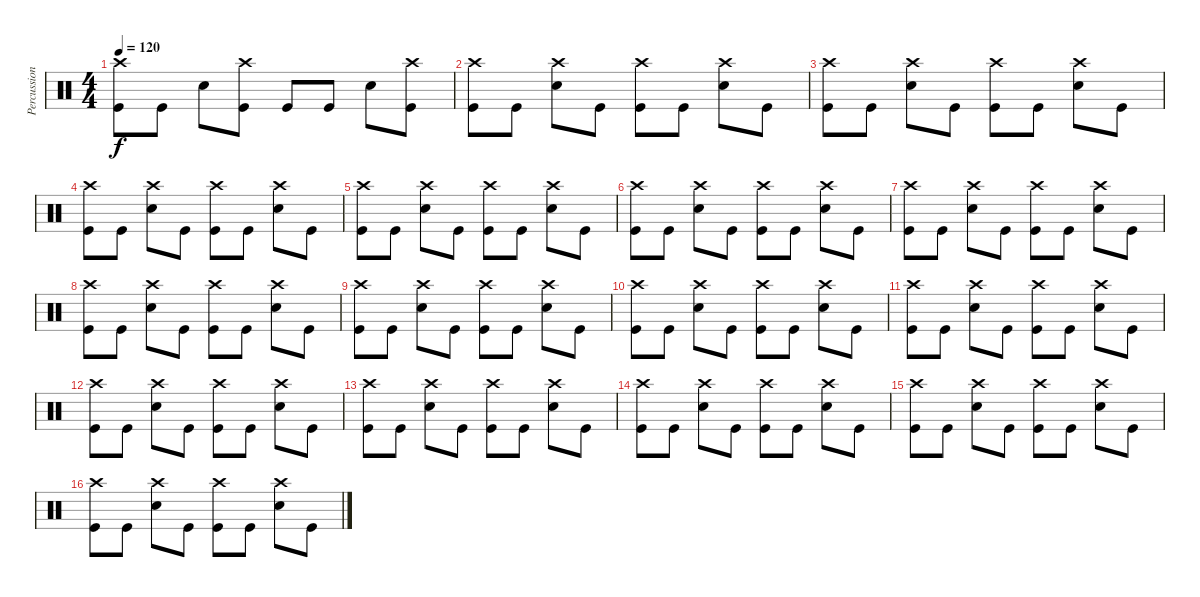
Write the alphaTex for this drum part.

\track ("Percussion" "Percussion") {instrument percussion}
\staff {score}
\articulation defaults
\ts (4 4)
\tempo 120
\clef neutral
\ks c
("Crash high (hit)" "Kick (hit)").8{dy f} "Kick (hit)".8 "Snare (hit) 2".8 ("Crash high (hit)" "Kick (hit)").8 "Kick (hit)".8 "Kick (hit)".8 "Snare (hit) 2".8 ("Crash high (hit)" "Kick (hit)").8 |
("Crash high (hit)" "Kick (hit)").8 "Kick (hit)".8 ("Crash high (hit)" "Snare (hit) 2").8 "Kick (hit)".8 ("Crash high (hit)" "Kick (hit)").8 "Kick (hit)".8 ("Crash high (hit)" "Snare (hit) 2").8 "Kick (hit)".8 |
("Crash high (hit)" "Kick (hit)").8 "Kick (hit)".8 ("Crash high (hit)" "Snare (hit) 2").8 "Kick (hit)".8 ("Crash high (hit)" "Kick (hit)").8 "Kick (hit)".8 ("Crash high (hit)" "Snare (hit) 2").8 "Kick (hit)".8 |
("Crash high (hit)" "Kick (hit)").8 "Kick (hit)".8 ("Crash high (hit)" "Snare (hit) 2").8 "Kick (hit)".8 ("Crash high (hit)" "Kick (hit)").8 "Kick (hit)".8 ("Crash high (hit)" "Snare (hit) 2").8 "Kick (hit)".8 |
("Crash high (hit)" "Kick (hit)").8 "Kick (hit)".8 ("Crash high (hit)" "Snare (hit) 2").8 "Kick (hit)".8 ("Crash high (hit)" "Kick (hit)").8 "Kick (hit)".8 ("Crash high (hit)" "Snare (hit) 2").8 "Kick (hit)".8 |
("Crash high (hit)" "Kick (hit)").8 "Kick (hit)".8 ("Crash high (hit)" "Snare (hit) 2").8 "Kick (hit)".8 ("Crash high (hit)" "Kick (hit)").8 "Kick (hit)".8 ("Crash high (hit)" "Snare (hit) 2").8 "Kick (hit)".8 |
("Crash high (hit)" "Kick (hit)").8 "Kick (hit)".8 ("Crash high (hit)" "Snare (hit) 2").8 "Kick (hit)".8 ("Crash high (hit)" "Kick (hit)").8 "Kick (hit)".8 ("Crash high (hit)" "Snare (hit) 2").8 "Kick (hit)".8 |
("Crash high (hit)" "Kick (hit)").8 "Kick (hit)".8 ("Crash high (hit)" "Snare (hit) 2").8 "Kick (hit)".8 ("Crash high (hit)" "Kick (hit)").8 "Kick (hit)".8 ("Crash high (hit)" "Snare (hit) 2").8 "Kick (hit)".8 |
("Crash high (hit)" "Kick (hit)").8 "Kick (hit)".8 ("Crash high (hit)" "Snare (hit) 2").8 "Kick (hit)".8 ("Crash high (hit)" "Kick (hit)").8 "Kick (hit)".8 ("Crash high (hit)" "Snare (hit) 2").8 "Kick (hit)".8 |
("Crash high (hit)" "Kick (hit)").8 "Kick (hit)".8 ("Crash high (hit)" "Snare (hit) 2").8 "Kick (hit)".8 ("Crash high (hit)" "Kick (hit)").8 "Kick (hit)".8 ("Crash high (hit)" "Snare (hit) 2").8 "Kick (hit)".8 |
("Crash high (hit)" "Kick (hit)").8 "Kick (hit)".8 ("Crash high (hit)" "Snare (hit) 2").8 "Kick (hit)".8 ("Crash high (hit)" "Kick (hit)").8 "Kick (hit)".8 ("Crash high (hit)" "Snare (hit) 2").8 "Kick (hit)".8 |
("Crash high (hit)" "Kick (hit)").8 "Kick (hit)".8 ("Crash high (hit)" "Snare (hit) 2").8 "Kick (hit)".8 ("Crash high (hit)" "Kick (hit)").8 "Kick (hit)".8 ("Crash high (hit)" "Snare (hit) 2").8 "Kick (hit)".8 |
("Crash high (hit)" "Kick (hit)").8 "Kick (hit)".8 ("Crash high (hit)" "Snare (hit) 2").8 "Kick (hit)".8 ("Crash high (hit)" "Kick (hit)").8 "Kick (hit)".8 ("Crash high (hit)" "Snare (hit) 2").8 "Kick (hit)".8 |
("Crash high (hit)" "Kick (hit)").8 "Kick (hit)".8 ("Crash high (hit)" "Snare (hit) 2").8 "Kick (hit)".8 ("Crash high (hit)" "Kick (hit)").8 "Kick (hit)".8 ("Crash high (hit)" "Snare (hit) 2").8 "Kick (hit)".8 |
("Crash high (hit)" "Kick (hit)").8 "Kick (hit)".8 ("Crash high (hit)" "Snare (hit) 2").8 "Kick (hit)".8 ("Crash high (hit)" "Kick (hit)").8 "Kick (hit)".8 ("Crash high (hit)" "Snare (hit) 2").8 "Kick (hit)".8 |
("Crash high (hit)" "Kick (hit)").8 "Kick (hit)".8 ("Crash high (hit)" "Snare (hit) 2").8 "Kick (hit)".8 ("Crash high (hit)" "Kick (hit)").8 "Kick (hit)".8 ("Crash high (hit)" "Snare (hit) 2").8 "Kick (hit)".8
